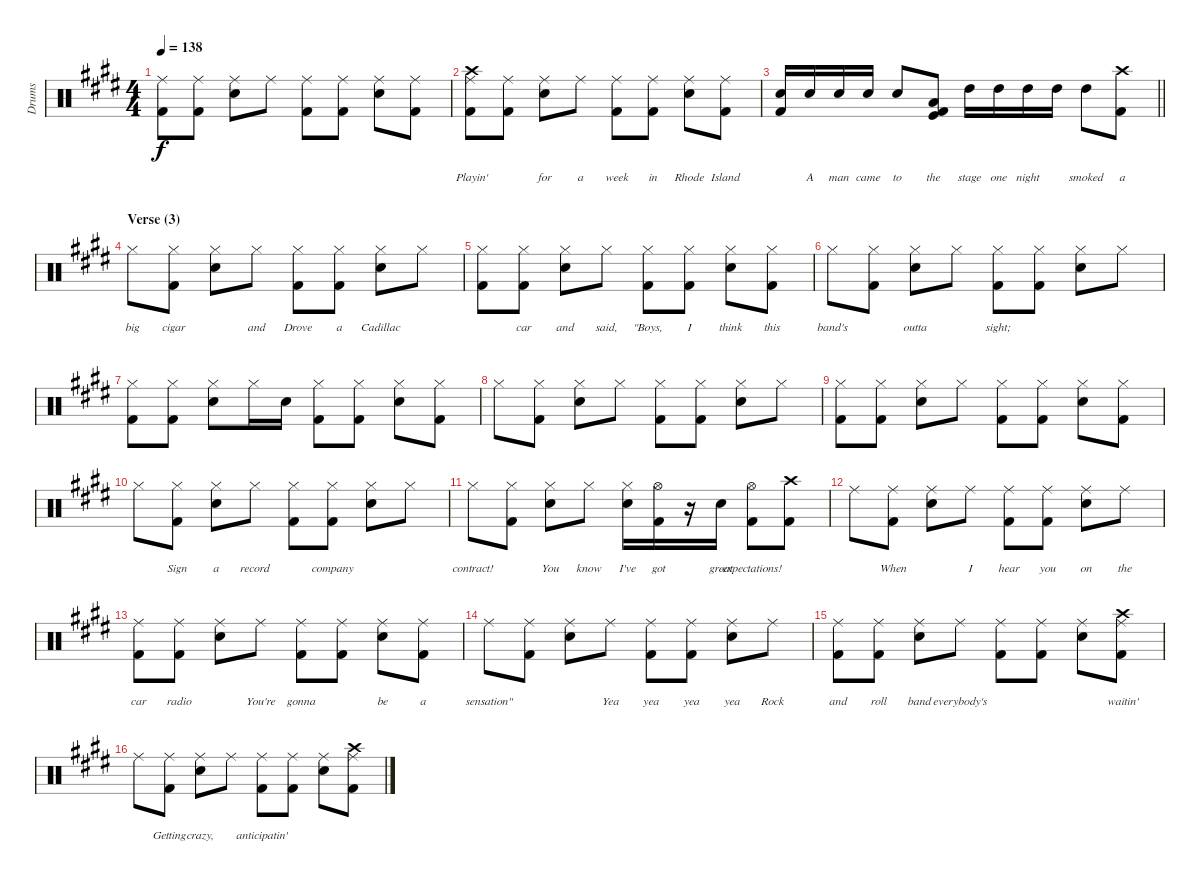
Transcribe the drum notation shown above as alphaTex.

\track ("Drums" "Drums") {instrument percussion}
\staff {score}
\articulation defaults
\ts (4 4)
\tempo 138
\clef neutral
\ks e
("Kick (hit) 2" "Ride (middle)").8{dy f} ("Kick (hit) 2" "Ride (middle)").8 ("Snare (hit) 2" "Ride (middle)").8 "Ride (middle)".8 ("Kick (hit) 2" "Ride (middle)").8 ("Kick (hit) 2" "Ride (middle)").8 ("Snare (hit) 2" "Ride (middle)").8 ("Kick (hit) 2" "Ride (middle)").8 |
("Crash high (hit)" "Kick (hit) 2" "Ride (middle)").8{lyrics (0 "") lyrics (1 "") lyrics (2 "Playin'") lyrics (3 "") lyrics (4 "")} ("Kick (hit) 2" "Ride (middle)").8{lyrics (0 "") lyrics (1 "") lyrics (2 "") lyrics (3 "") lyrics (4 "")} ("Snare (hit) 2" "Ride (middle)").8{lyrics (0 "") lyrics (1 "") lyrics (2 "for") lyrics (3 "") lyrics (4 "")} "Ride (middle)".8{lyrics (0 "") lyrics (1 "") lyrics (2 "a") lyrics (3 "") lyrics (4 "")} ("Kick (hit) 2" "Ride (middle)").8{lyrics (0 "") lyrics (1 "") lyrics (2 "week") lyrics (3 "") lyrics (4 "")} ("Kick (hit) 2" "Ride (middle)").8{lyrics (0 "") lyrics (1 "") lyrics (2 "in") lyrics (3 "") lyrics (4 "")} ("Snare (hit) 2" "Ride (middle)").8{lyrics (0 "") lyrics (1 "") lyrics (2 "Rhode") lyrics (3 "") lyrics (4 "")} ("Kick (hit) 2" "Ride (middle)").8{lyrics (0 "") lyrics (1 "") lyrics (2 "Island") lyrics (3 "") lyrics (4 "")} |
\barLineRight lightlight
("Kick (hit) 2" "Snare (hit) 2").16{lyrics (0 "") lyrics (1 "") lyrics (2 "") lyrics (3 "") lyrics (4 "")} "Snare (hit) 2".16{lyrics (0 "") lyrics (1 "") lyrics (2 "A") lyrics (3 "") lyrics (4 "")} "Snare (hit) 2".16{lyrics (0 "") lyrics (1 "") lyrics (2 "man") lyrics (3 "") lyrics (4 "")} "Snare (hit) 2".16{lyrics (0 "") lyrics (1 "") lyrics (2 "came") lyrics (3 "") lyrics (4 "")} "Snare (hit) 2".8{lyrics (0 "") lyrics (1 "") lyrics (2 "to") lyrics (3 "") lyrics (4 "")} ("Kick (hit)" "Kick (hit) 2" "Low Floor Tom (hit)").8{lyrics (0 "") lyrics (1 "") lyrics (2 "the") lyrics (3 "") lyrics (4 "")} "High Tom (hit)".16{lyrics (0 "") lyrics (1 "") lyrics (2 "stage") lyrics (3 "") lyrics (4 "")} "High Tom (hit)".16{lyrics (0 "") lyrics (1 "") lyrics (2 "one") lyrics (3 "") lyrics (4 "")} "High Tom (hit)".16{lyrics (0 "") lyrics (1 "") lyrics (2 "night") lyrics (3 "") lyrics (4 "")} "High Tom (hit)".16{lyrics (0 "") lyrics (1 "") lyrics (2 "") lyrics (3 "") lyrics (4 "")} "High Tom (hit)".8{lyrics (0 "") lyrics (1 "") lyrics (2 "smoked") lyrics (3 "") lyrics (4 "")} ("Crash high (hit)" "Kick (hit) 2").8{lyrics (0 "") lyrics (1 "") lyrics (2 "a") lyrics (3 "") lyrics (4 "")} |
\section ("" "Verse (3)")
"Hi-Hat (closed)".8{lyrics (0 "") lyrics (1 "") lyrics (2 "big") lyrics (3 "") lyrics (4 "")} ("Kick (hit) 2" "Hi-Hat (closed)").8{lyrics (0 "") lyrics (1 "") lyrics (2 "cigar") lyrics (3 "") lyrics (4 "")} ("Snare (hit) 2" "Hi-Hat (closed)").8{lyrics (0 "") lyrics (1 "") lyrics (2 "") lyrics (3 "") lyrics (4 "")} "Hi-Hat (closed)".8{lyrics (0 "") lyrics (1 "") lyrics (2 "and") lyrics (3 "") lyrics (4 "")} ("Kick (hit) 2" "Hi-Hat (closed)").8{lyrics (0 "") lyrics (1 "") lyrics (2 "Drove") lyrics (3 "") lyrics (4 "")} ("Kick (hit) 2" "Hi-Hat (closed)").8{lyrics (0 "") lyrics (1 "") lyrics (2 "a") lyrics (3 "") lyrics (4 "")} ("Snare (hit) 2" "Hi-Hat (closed)").8{lyrics (0 "") lyrics (1 "") lyrics (2 "Cadillac") lyrics (3 "") lyrics (4 "")} "Hi-Hat (closed)".8{lyrics (0 "") lyrics (1 "") lyrics (2 "") lyrics (3 "") lyrics (4 "")} |
("Kick (hit) 2" "Hi-Hat (closed)").8{lyrics (0 "") lyrics (1 "") lyrics (2 "") lyrics (3 "") lyrics (4 "")} ("Kick (hit) 2" "Hi-Hat (closed)").8{lyrics (0 "") lyrics (1 "") lyrics (2 "car") lyrics (3 "") lyrics (4 "")} ("Snare (hit) 2" "Hi-Hat (closed)").8{lyrics (0 "") lyrics (1 "") lyrics (2 "and") lyrics (3 "") lyrics (4 "")} "Hi-Hat (closed)".8{lyrics (0 "") lyrics (1 "") lyrics (2 "said,") lyrics (3 "") lyrics (4 "")} ("Kick (hit) 2" "Hi-Hat (closed)").8{lyrics (0 "") lyrics (1 "") lyrics (2 "\"Boys,") lyrics (3 "") lyrics (4 "")} ("Kick (hit) 2" "Hi-Hat (closed)").8{lyrics (0 "") lyrics (1 "") lyrics (2 "I") lyrics (3 "") lyrics (4 "")} ("Snare (hit) 2" "Hi-Hat (closed)").8{lyrics (0 "") lyrics (1 "") lyrics (2 "think") lyrics (3 "") lyrics (4 "")} ("Kick (hit) 2" "Hi-Hat (closed)").8{lyrics (0 "") lyrics (1 "") lyrics (2 "this") lyrics (3 "") lyrics (4 "")} |
"Hi-Hat (closed)".8{lyrics (0 "") lyrics (1 "") lyrics (2 "band's") lyrics (3 "") lyrics (4 "")} ("Kick (hit) 2" "Hi-Hat (closed)").8{lyrics (0 "") lyrics (1 "") lyrics (2 "") lyrics (3 "") lyrics (4 "")} ("Snare (hit) 2" "Hi-Hat (closed)").8{lyrics (0 "") lyrics (1 "") lyrics (2 "outta") lyrics (3 "") lyrics (4 "")} "Hi-Hat (closed)".8{lyrics (0 "") lyrics (1 "") lyrics (2 "") lyrics (3 "") lyrics (4 "")} ("Kick (hit) 2" "Hi-Hat (closed)").8{lyrics (0 "") lyrics (1 "") lyrics (2 "sight;") lyrics (3 "") lyrics (4 "")} ("Kick (hit) 2" "Hi-Hat (closed)").8 ("Snare (hit) 2" "Hi-Hat (closed)").8 "Hi-Hat (closed)".8 |
("Kick (hit) 2" "Hi-Hat (closed)").8 ("Kick (hit) 2" "Hi-Hat (closed)").8 ("Snare (hit) 2" "Hi-Hat (closed)").8 "Hi-Hat (closed)".16 "Snare (hit) 2".16 ("Kick (hit) 2" "Hi-Hat (closed)").8 ("Kick (hit) 2" "Hi-Hat (closed)").8 ("Snare (hit) 2" "Hi-Hat (closed)").8 ("Kick (hit) 2" "Hi-Hat (closed)").8 |
"Hi-Hat (closed)".8 ("Kick (hit) 2" "Hi-Hat (closed)").8 ("Snare (hit) 2" "Hi-Hat (closed)").8 "Hi-Hat (closed)".8 ("Kick (hit) 2" "Hi-Hat (closed)").8 ("Kick (hit) 2" "Hi-Hat (closed)").8 ("Snare (hit) 2" "Hi-Hat (closed)").8 "Hi-Hat (closed)".8 |
("Kick (hit) 2" "Hi-Hat (closed)").8 ("Kick (hit) 2" "Hi-Hat (closed)").8 ("Snare (hit) 2" "Hi-Hat (closed)").8 "Hi-Hat (closed)".8 ("Kick (hit) 2" "Hi-Hat (closed)").8 ("Kick (hit) 2" "Hi-Hat (closed)").8 ("Snare (hit) 2" "Hi-Hat (closed)").8 ("Kick (hit) 2" "Hi-Hat (closed)").8 |
"Hi-Hat (closed)".8{lyrics (0 "") lyrics (1 "") lyrics (2 "") lyrics (3 "") lyrics (4 "")} ("Kick (hit) 2" "Hi-Hat (closed)").8{lyrics (0 "") lyrics (1 "") lyrics (2 "") lyrics (3 "Sign") lyrics (4 "")} ("Snare (hit) 2" "Hi-Hat (closed)").8{lyrics (0 "") lyrics (1 "") lyrics (2 "") lyrics (3 "a") lyrics (4 "")} "Hi-Hat (closed)".8{lyrics (0 "") lyrics (1 "") lyrics (2 "") lyrics (3 "record") lyrics (4 "")} ("Kick (hit) 2" "Hi-Hat (closed)").8{lyrics (0 "") lyrics (1 "") lyrics (2 "") lyrics (3 "") lyrics (4 "")} ("Kick (hit) 2" "Hi-Hat (closed)").8{lyrics (0 "") lyrics (1 "") lyrics (2 "") lyrics (3 "company") lyrics (4 "")} ("Snare (hit) 2" "Hi-Hat (closed)").8{lyrics (0 "") lyrics (1 "") lyrics (2 "") lyrics (3 "") lyrics (4 "")} "Hi-Hat (closed)".8{lyrics (0 "") lyrics (1 "") lyrics (2 "") lyrics (3 "") lyrics (4 "")} |
"Hi-Hat (closed)".8{lyrics (0 "") lyrics (1 "") lyrics (2 "") lyrics (3 "contract!") lyrics (4 "")} ("Kick (hit) 2" "Hi-Hat (closed)").8{lyrics (0 "") lyrics (1 "") lyrics (2 "") lyrics (3 "") lyrics (4 "")} ("Snare (hit) 2" "Hi-Hat (closed)").8{lyrics (0 "") lyrics (1 "") lyrics (2 "") lyrics (3 "You") lyrics (4 "")} "Hi-Hat (closed)".8{lyrics (0 "") lyrics (1 "") lyrics (2 "") lyrics (3 "know") lyrics (4 "")} ("Snare (hit) 2" "Hi-Hat (closed)").16{lyrics (0 "") lyrics (1 "") lyrics (2 "") lyrics (3 "I've") lyrics (4 "")} ("Hi-Hat (open)" "Kick (hit) 2").16{lyrics (0 "") lyrics (1 "") lyrics (2 "") lyrics (3 "got") lyrics (4 "")} r.16 "Snare (hit) 2".16{lyrics (0 "") lyrics (1 "") lyrics (2 "") lyrics (3 "great") lyrics (4 "")} ("Hi-Hat (open)" "Kick (hit) 2").8{lyrics (0 "") lyrics (1 "") lyrics (2 "") lyrics (3 "expectations!") lyrics (4 "")} ("Crash high (hit)" "Kick (hit) 2").8{lyrics (0 "") lyrics (1 "") lyrics (2 "") lyrics (3 "") lyrics (4 "")} |
"Ride (middle)".8{lyrics (0 "") lyrics (1 "") lyrics (2 "") lyrics (3 "") lyrics (4 "")} ("Kick (hit) 2" "Ride (middle)").8{lyrics (0 "") lyrics (1 "") lyrics (2 "") lyrics (3 "When") lyrics (4 "")} ("Snare (hit) 2" "Ride (middle)").8{lyrics (0 "") lyrics (1 "") lyrics (2 "") lyrics (3 "") lyrics (4 "")} "Ride (middle)".8{lyrics (0 "") lyrics (1 "") lyrics (2 "") lyrics (3 "I") lyrics (4 "")} ("Kick (hit) 2" "Ride (middle)").8{lyrics (0 "") lyrics (1 "") lyrics (2 "") lyrics (3 "hear") lyrics (4 "")} ("Kick (hit) 2" "Ride (middle)").8{lyrics (0 "") lyrics (1 "") lyrics (2 "") lyrics (3 "you") lyrics (4 "")} ("Snare (hit) 2" "Ride (middle)").8{lyrics (0 "") lyrics (1 "") lyrics (2 "") lyrics (3 "on") lyrics (4 "")} "Ride (middle)".8{lyrics (0 "") lyrics (1 "") lyrics (2 "") lyrics (3 "the") lyrics (4 "")} |
("Kick (hit) 2" "Ride (middle)").8{lyrics (0 "") lyrics (1 "") lyrics (2 "") lyrics (3 "car") lyrics (4 "")} ("Kick (hit) 2" "Ride (middle)").8{lyrics (0 "") lyrics (1 "") lyrics (2 "") lyrics (3 "radio") lyrics (4 "")} ("Snare (hit) 2" "Ride (middle)").8{lyrics (0 "") lyrics (1 "") lyrics (2 "") lyrics (3 "") lyrics (4 "")} "Ride (middle)".8{lyrics (0 "") lyrics (1 "") lyrics (2 "") lyrics (3 "You're") lyrics (4 "")} ("Kick (hit) 2" "Ride (middle)").8{lyrics (0 "") lyrics (1 "") lyrics (2 "") lyrics (3 "gonna") lyrics (4 "")} ("Kick (hit) 2" "Ride (middle)").8{lyrics (0 "") lyrics (1 "") lyrics (2 "") lyrics (3 "") lyrics (4 "")} ("Snare (hit) 2" "Ride (middle)").8{lyrics (0 "") lyrics (1 "") lyrics (2 "") lyrics (3 "be") lyrics (4 "")} ("Kick (hit) 2" "Ride (middle)").8{lyrics (0 "") lyrics (1 "") lyrics (2 "") lyrics (3 "a") lyrics (4 "")} |
"Ride (middle)".8{lyrics (0 "") lyrics (1 "") lyrics (2 "") lyrics (3 "sensation\"") lyrics (4 "")} ("Kick (hit) 2" "Ride (middle)").8{lyrics (0 "") lyrics (1 "") lyrics (2 "") lyrics (3 "") lyrics (4 "")} ("Snare (hit) 2" "Ride (middle)").8{lyrics (0 "") lyrics (1 "") lyrics (2 "") lyrics (3 "") lyrics (4 "")} "Ride (middle)".8{lyrics (0 "") lyrics (1 "") lyrics (2 "") lyrics (3 "Yea") lyrics (4 "")} ("Kick (hit) 2" "Ride (middle)").8{lyrics (0 "") lyrics (1 "") lyrics (2 "") lyrics (3 "yea") lyrics (4 "")} ("Kick (hit) 2" "Ride (middle)").8{lyrics (0 "") lyrics (1 "") lyrics (2 "") lyrics (3 "yea") lyrics (4 "")} ("Snare (hit) 2" "Ride (middle)").8{lyrics (0 "") lyrics (1 "") lyrics (2 "") lyrics (3 "yea") lyrics (4 "")} "Ride (middle)".8{lyrics (0 "") lyrics (1 "") lyrics (2 "") lyrics (3 "Rock") lyrics (4 "")} |
("Kick (hit) 2" "Ride (middle)").8{lyrics (0 "") lyrics (1 "") lyrics (2 "") lyrics (3 "and") lyrics (4 "")} ("Kick (hit) 2" "Ride (middle)").8{lyrics (0 "") lyrics (1 "") lyrics (2 "") lyrics (3 "roll") lyrics (4 "")} ("Snare (hit) 2" "Ride (middle)").8{lyrics (0 "") lyrics (1 "") lyrics (2 "") lyrics (3 "band") lyrics (4 "")} "Ride (middle)".8{lyrics (0 "") lyrics (1 "") lyrics (2 "") lyrics (3 "everybody's") lyrics (4 "")} ("Kick (hit) 2" "Ride (middle)").8{lyrics (0 "") lyrics (1 "") lyrics (2 "") lyrics (3 "") lyrics (4 "")} ("Kick (hit) 2" "Ride (middle)").8{lyrics (0 "") lyrics (1 "") lyrics (2 "") lyrics (3 "") lyrics (4 "")} ("Snare (hit) 2" "Ride (middle)").8{lyrics (0 "") lyrics (1 "") lyrics (2 "") lyrics (3 "") lyrics (4 "")} ("Crash high (hit)" "Kick (hit) 2" "Ride (middle)").8{lyrics (0 "") lyrics (1 "") lyrics (2 "") lyrics (3 "waitin'") lyrics (4 "")} |
"Ride (middle)".8{lyrics (0 "") lyrics (1 "") lyrics (2 "") lyrics (3 "") lyrics (4 "")} ("Kick (hit) 2" "Ride (middle)").8{lyrics (0 "") lyrics (1 "") lyrics (2 "") lyrics (3 "Getting") lyrics (4 "")} ("Snare (hit) 2" "Ride (middle)").8{lyrics (0 "") lyrics (1 "") lyrics (2 "") lyrics (3 "crazy,") lyrics (4 "")} "Ride (middle)".8{lyrics (0 "") lyrics (1 "") lyrics (2 "") lyrics (3 "") lyrics (4 "")} ("Kick (hit) 2" "Ride (middle)").8{lyrics (0 "") lyrics (1 "") lyrics (2 "") lyrics (3 "anticipatin'") lyrics (4 "")} ("Kick (hit) 2" "Ride (middle)").8{lyrics (0 "") lyrics (1 "") lyrics (2 "") lyrics (3 "") lyrics (4 "")} ("Snare (hit) 2" "Ride (middle)").8{lyrics (0 "") lyrics (1 "") lyrics (2 "") lyrics (3 "") lyrics (4 "")} ("Crash high (hit)" "Kick (hit) 2" "Ride (middle)").8{lyrics (0 "") lyrics (1 "") lyrics (2 "") lyrics (3 "") lyrics (4 "")}
